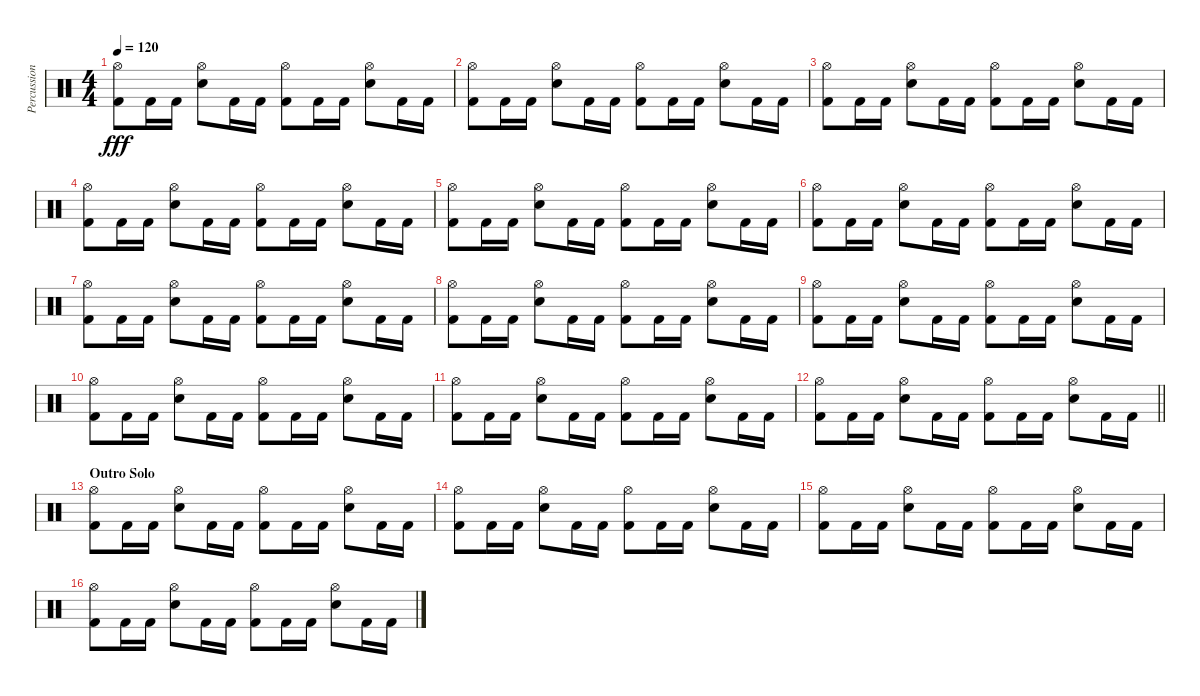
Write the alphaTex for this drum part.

\track ("Percussion" "Percussion") {instrument percussion}
\staff {score}
\articulation defaults
\ts (4 4)
\tempo 120
\clef neutral
\ks c
("Hi-Hat (open)" "Kick (hit) 2").8{dy fff} "Kick (hit) 2".16 "Kick (hit) 2".16 ("Hi-Hat (open)" "Electric Snare (hit)").8 "Kick (hit) 2".16 "Kick (hit) 2".16 ("Hi-Hat (open)" "Kick (hit) 2").8 "Kick (hit) 2".16 "Kick (hit) 2".16 ("Hi-Hat (open)" "Electric Snare (hit)").8 "Kick (hit) 2".16 "Kick (hit) 2".16 |
("Hi-Hat (open)" "Kick (hit) 2").8 "Kick (hit) 2".16 "Kick (hit) 2".16 ("Hi-Hat (open)" "Electric Snare (hit)").8 "Kick (hit) 2".16 "Kick (hit) 2".16 ("Hi-Hat (open)" "Kick (hit) 2").8 "Kick (hit) 2".16 "Kick (hit) 2".16 ("Hi-Hat (open)" "Electric Snare (hit)").8 "Kick (hit) 2".16 "Kick (hit) 2".16 |
("Hi-Hat (open)" "Kick (hit) 2").8 "Kick (hit) 2".16 "Kick (hit) 2".16 ("Hi-Hat (open)" "Electric Snare (hit)").8 "Kick (hit) 2".16 "Kick (hit) 2".16 ("Hi-Hat (open)" "Kick (hit) 2").8 "Kick (hit) 2".16 "Kick (hit) 2".16 ("Hi-Hat (open)" "Electric Snare (hit)").8 "Kick (hit) 2".16 "Kick (hit) 2".16 |
("Hi-Hat (open)" "Kick (hit) 2").8 "Kick (hit) 2".16 "Kick (hit) 2".16 ("Hi-Hat (open)" "Electric Snare (hit)").8 "Kick (hit) 2".16 "Kick (hit) 2".16 ("Hi-Hat (open)" "Kick (hit) 2").8 "Kick (hit) 2".16 "Kick (hit) 2".16 ("Hi-Hat (open)" "Electric Snare (hit)").8 "Kick (hit) 2".16 "Kick (hit) 2".16 |
("Hi-Hat (open)" "Kick (hit) 2").8 "Kick (hit) 2".16 "Kick (hit) 2".16 ("Hi-Hat (open)" "Electric Snare (hit)").8 "Kick (hit) 2".16 "Kick (hit) 2".16 ("Hi-Hat (open)" "Kick (hit) 2").8 "Kick (hit) 2".16 "Kick (hit) 2".16 ("Hi-Hat (open)" "Electric Snare (hit)").8 "Kick (hit) 2".16 "Kick (hit) 2".16 |
("Hi-Hat (open)" "Kick (hit) 2").8 "Kick (hit) 2".16 "Kick (hit) 2".16 ("Hi-Hat (open)" "Electric Snare (hit)").8 "Kick (hit) 2".16 "Kick (hit) 2".16 ("Hi-Hat (open)" "Kick (hit) 2").8 "Kick (hit) 2".16 "Kick (hit) 2".16 ("Hi-Hat (open)" "Electric Snare (hit)").8 "Kick (hit) 2".16 "Kick (hit) 2".16 |
("Hi-Hat (open)" "Kick (hit) 2").8 "Kick (hit) 2".16 "Kick (hit) 2".16 ("Hi-Hat (open)" "Electric Snare (hit)").8 "Kick (hit) 2".16 "Kick (hit) 2".16 ("Hi-Hat (open)" "Kick (hit) 2").8 "Kick (hit) 2".16 "Kick (hit) 2".16 ("Hi-Hat (open)" "Electric Snare (hit)").8 "Kick (hit) 2".16 "Kick (hit) 2".16 |
("Hi-Hat (open)" "Kick (hit) 2").8 "Kick (hit) 2".16 "Kick (hit) 2".16 ("Hi-Hat (open)" "Electric Snare (hit)").8 "Kick (hit) 2".16 "Kick (hit) 2".16 ("Hi-Hat (open)" "Kick (hit) 2").8 "Kick (hit) 2".16 "Kick (hit) 2".16 ("Hi-Hat (open)" "Electric Snare (hit)").8 "Kick (hit) 2".16 "Kick (hit) 2".16 |
("Hi-Hat (open)" "Kick (hit) 2").8 "Kick (hit) 2".16 "Kick (hit) 2".16 ("Hi-Hat (open)" "Electric Snare (hit)").8 "Kick (hit) 2".16 "Kick (hit) 2".16 ("Hi-Hat (open)" "Kick (hit) 2").8 "Kick (hit) 2".16 "Kick (hit) 2".16 ("Hi-Hat (open)" "Electric Snare (hit)").8 "Kick (hit) 2".16 "Kick (hit) 2".16 |
("Hi-Hat (open)" "Kick (hit) 2").8 "Kick (hit) 2".16 "Kick (hit) 2".16 ("Hi-Hat (open)" "Electric Snare (hit)").8 "Kick (hit) 2".16 "Kick (hit) 2".16 ("Hi-Hat (open)" "Kick (hit) 2").8 "Kick (hit) 2".16 "Kick (hit) 2".16 ("Hi-Hat (open)" "Electric Snare (hit)").8 "Kick (hit) 2".16 "Kick (hit) 2".16 |
("Hi-Hat (open)" "Kick (hit) 2").8 "Kick (hit) 2".16 "Kick (hit) 2".16 ("Hi-Hat (open)" "Electric Snare (hit)").8 "Kick (hit) 2".16 "Kick (hit) 2".16 ("Hi-Hat (open)" "Kick (hit) 2").8 "Kick (hit) 2".16 "Kick (hit) 2".16 ("Hi-Hat (open)" "Electric Snare (hit)").8 "Kick (hit) 2".16 "Kick (hit) 2".16 |
\barLineRight lightlight
("Hi-Hat (open)" "Kick (hit) 2").8 "Kick (hit) 2".16 "Kick (hit) 2".16 ("Hi-Hat (open)" "Electric Snare (hit)").8 "Kick (hit) 2".16 "Kick (hit) 2".16 ("Hi-Hat (open)" "Kick (hit) 2").8 "Kick (hit) 2".16 "Kick (hit) 2".16 ("Hi-Hat (open)" "Electric Snare (hit)").8 "Kick (hit) 2".16 "Kick (hit) 2".16 |
\section ("" "Outro Solo")
("Hi-Hat (open)" "Kick (hit) 2").8 "Kick (hit) 2".16 "Kick (hit) 2".16 ("Hi-Hat (open)" "Electric Snare (hit)").8 "Kick (hit) 2".16 "Kick (hit) 2".16 ("Hi-Hat (open)" "Kick (hit) 2").8 "Kick (hit) 2".16 "Kick (hit) 2".16 ("Hi-Hat (open)" "Electric Snare (hit)").8 "Kick (hit) 2".16 "Kick (hit) 2".16 |
("Hi-Hat (open)" "Kick (hit) 2").8 "Kick (hit) 2".16 "Kick (hit) 2".16 ("Hi-Hat (open)" "Electric Snare (hit)").8 "Kick (hit) 2".16 "Kick (hit) 2".16 ("Hi-Hat (open)" "Kick (hit) 2").8 "Kick (hit) 2".16 "Kick (hit) 2".16 ("Hi-Hat (open)" "Electric Snare (hit)").8 "Kick (hit) 2".16 "Kick (hit) 2".16 |
("Hi-Hat (open)" "Kick (hit) 2").8 "Kick (hit) 2".16 "Kick (hit) 2".16 ("Hi-Hat (open)" "Electric Snare (hit)").8 "Kick (hit) 2".16 "Kick (hit) 2".16 ("Hi-Hat (open)" "Kick (hit) 2").8 "Kick (hit) 2".16 "Kick (hit) 2".16 ("Hi-Hat (open)" "Electric Snare (hit)").8 "Kick (hit) 2".16 "Kick (hit) 2".16 |
("Hi-Hat (open)" "Kick (hit) 2").8 "Kick (hit) 2".16 "Kick (hit) 2".16 ("Hi-Hat (open)" "Electric Snare (hit)").8 "Kick (hit) 2".16 "Kick (hit) 2".16 ("Hi-Hat (open)" "Kick (hit) 2").8 "Kick (hit) 2".16 "Kick (hit) 2".16 ("Hi-Hat (open)" "Electric Snare (hit)").8 "Kick (hit) 2".16 "Kick (hit) 2".16
